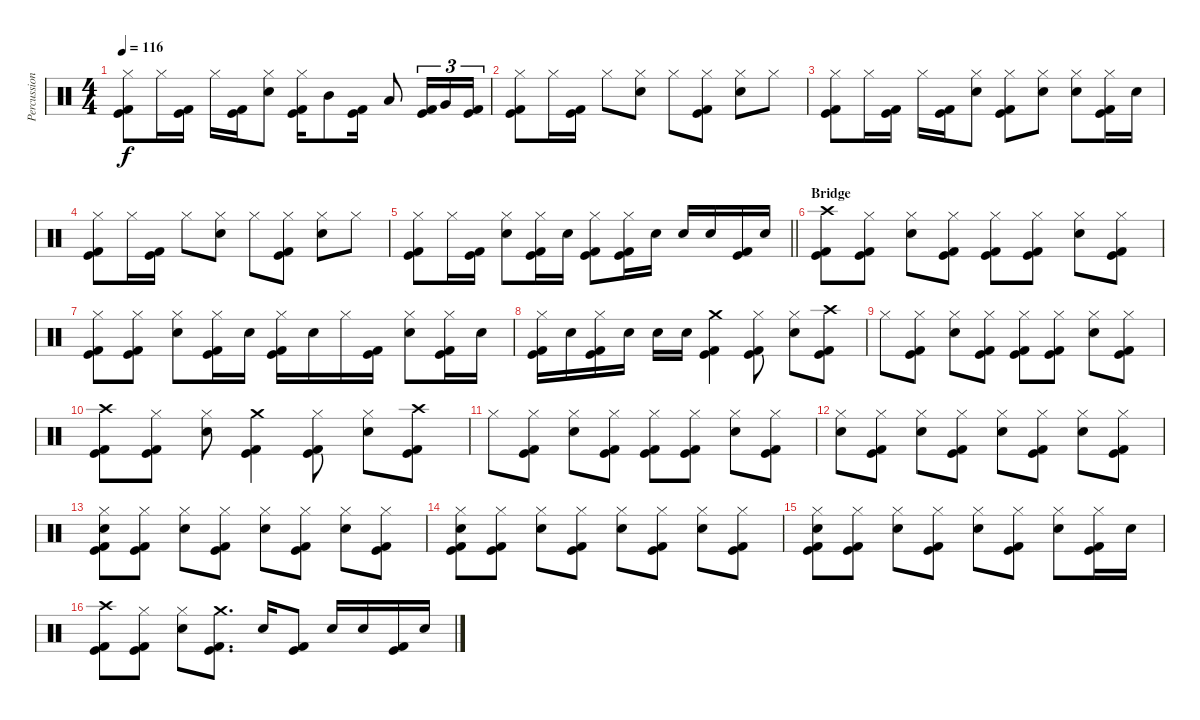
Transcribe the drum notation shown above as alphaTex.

\track ("Percussion" "Percussion") {instrument percussion}
\staff {score}
\articulation defaults
\ts (4 4)
\tempo 116
\clef neutral
\ks c
("Hi-Hat (closed)" "Kick (hit)" "Kick (hit) 2").8{dy f} "Hi-Hat (closed)".16 ("Kick (hit)" "Kick (hit) 2").16 "Hi-Hat (closed)".16 ("Kick (hit)" "Kick (hit) 2").16 ("Hi-Hat (closed)" "Electric Snare (hit)").8 ("Hi-Hat (closed)" "Kick (hit)" "Kick (hit) 2").16 "Mid Tom (hit)".8 ("Kick (hit)" "Kick (hit) 2").16 "Low Tom (hit)".8 ("Kick (hit)" "Kick (hit) 2").16{tu (3 2)} "Very Low Tom (hit)".16{tu (3 2)} ("Kick (hit)" "Kick (hit) 2").16{tu (3 2)} |
("Hi-Hat (closed)" "Kick (hit)" "Kick (hit) 2").8 "Hi-Hat (closed)".16 ("Kick (hit)" "Kick (hit) 2").16 "Hi-Hat (closed)".8 ("Hi-Hat (closed)" "Electric Snare (hit)").8 "Hi-Hat (closed)".8 ("Hi-Hat (closed)" "Kick (hit)" "Kick (hit) 2").8 ("Hi-Hat (closed)" "Electric Snare (hit)").8 "Hi-Hat (closed)".8 |
("Hi-Hat (closed)" "Kick (hit)" "Kick (hit) 2").8 "Hi-Hat (closed)".16 ("Kick (hit)" "Kick (hit) 2").16 "Hi-Hat (closed)".16 ("Kick (hit)" "Kick (hit) 2").16 ("Hi-Hat (closed)" "Electric Snare (hit)").8 ("Hi-Hat (closed)" "Kick (hit)" "Kick (hit) 2").8 ("Hi-Hat (closed)" "Electric Snare (hit)").8 ("Hi-Hat (closed)" "Electric Snare (hit)").8 ("Hi-Hat (closed)" "Kick (hit)" "Kick (hit) 2").16 "Electric Snare (hit)".16 |
("Hi-Hat (closed)" "Kick (hit)" "Kick (hit) 2").8 "Hi-Hat (closed)".16 ("Kick (hit)" "Kick (hit) 2").16 "Hi-Hat (closed)".8 ("Hi-Hat (closed)" "Electric Snare (hit)").8 "Hi-Hat (closed)".8 ("Hi-Hat (closed)" "Kick (hit)" "Kick (hit) 2").8 ("Hi-Hat (closed)" "Electric Snare (hit)").8 "Hi-Hat (closed)".8 |
\barLineRight lightlight
("Hi-Hat (closed)" "Kick (hit)" "Kick (hit) 2").8 "Hi-Hat (closed)".16 ("Kick (hit)" "Kick (hit) 2").16 ("Hi-Hat (closed)" "Electric Snare (hit)").8 ("Hi-Hat (closed)" "Kick (hit)" "Kick (hit) 2").16 "Electric Snare (hit)".16 ("Hi-Hat (closed)" "Kick (hit)" "Kick (hit) 2").8 ("Hi-Hat (closed)" "Kick (hit)" "Kick (hit) 2").16 "Electric Snare (hit)".16 "Electric Snare (hit)".16 "Electric Snare (hit)".16 ("Kick (hit)" "Kick (hit) 2").16 "Electric Snare (hit)".16 |
\section ("" "Bridge")
("Crash high (hit)" "Kick (hit)" "Kick (hit) 2").8 ("Hi-Hat (closed)" "Kick (hit)" "Kick (hit) 2").8 ("Hi-Hat (closed)" "Electric Snare (hit)").8 ("Hi-Hat (closed)" "Kick (hit)" "Kick (hit) 2").8 ("Hi-Hat (closed)" "Kick (hit)" "Kick (hit) 2").8 ("Hi-Hat (closed)" "Kick (hit)" "Kick (hit) 2").8 ("Hi-Hat (closed)" "Electric Snare (hit)").8 ("Hi-Hat (closed)" "Kick (hit)" "Kick (hit) 2").8 |
("Hi-Hat (closed)" "Kick (hit)" "Kick (hit) 2").8 ("Hi-Hat (closed)" "Kick (hit)" "Kick (hit) 2").8 ("Hi-Hat (closed)" "Electric Snare (hit)").8 ("Hi-Hat (closed)" "Kick (hit)" "Kick (hit) 2").16 "Electric Snare (hit)".16 ("Hi-Hat (closed)" "Kick (hit)" "Kick (hit) 2").16 "Electric Snare (hit)".16 "Hi-Hat (closed)".16 ("Kick (hit)" "Kick (hit) 2").16 ("Hi-Hat (closed)" "Electric Snare (hit)").8 ("Hi-Hat (closed)" "Kick (hit)" "Kick (hit) 2").16 "Electric Snare (hit)".16 |
("Hi-Hat (closed)" "Kick (hit)" "Kick (hit) 2").16 "Electric Snare (hit)".16 ("Hi-Hat (closed)" "Kick (hit)" "Kick (hit) 2").16 "Electric Snare (hit)".16 "Electric Snare (hit)".16 "Electric Snare (hit)".16 ("Crash medium (hit)" "Kick (hit)" "Kick (hit) 2").4 ("Hi-Hat (closed)" "Kick (hit)" "Kick (hit) 2").8 ("Hi-Hat (closed)" "Electric Snare (hit)").8 ("Crash high (hit)" "Kick (hit)" "Kick (hit) 2").8 |
"Hi-Hat (closed)".8 ("Hi-Hat (closed)" "Kick (hit)" "Kick (hit) 2").8 ("Hi-Hat (closed)" "Electric Snare (hit)").8 ("Hi-Hat (closed)" "Kick (hit)" "Kick (hit) 2").8 ("Hi-Hat (closed)" "Kick (hit)" "Kick (hit) 2").8 ("Hi-Hat (closed)" "Kick (hit)" "Kick (hit) 2").8 ("Hi-Hat (closed)" "Electric Snare (hit)").8 ("Hi-Hat (closed)" "Kick (hit)" "Kick (hit) 2").8 |
("Crash high (hit)" "Kick (hit)" "Kick (hit) 2").8 ("Hi-Hat (closed)" "Kick (hit)" "Kick (hit) 2").8 ("Hi-Hat (closed)" "Electric Snare (hit)").8 ("Crash medium (hit)" "Kick (hit)" "Kick (hit) 2").4 ("Hi-Hat (closed)" "Kick (hit)" "Kick (hit) 2").8 ("Hi-Hat (closed)" "Electric Snare (hit)").8 ("Crash high (hit)" "Kick (hit)" "Kick (hit) 2").8 |
"Hi-Hat (closed)".8 ("Hi-Hat (closed)" "Kick (hit)" "Kick (hit) 2").8 ("Hi-Hat (closed)" "Electric Snare (hit)").8 ("Hi-Hat (closed)" "Kick (hit)" "Kick (hit) 2").8 ("Hi-Hat (closed)" "Kick (hit)" "Kick (hit) 2").8 ("Hi-Hat (closed)" "Kick (hit)" "Kick (hit) 2").8 ("Hi-Hat (closed)" "Electric Snare (hit)").8 ("Hi-Hat (closed)" "Kick (hit)" "Kick (hit) 2").8 |
("Hi-Hat (closed)" "Electric Snare (hit)").8 ("Hi-Hat (closed)" "Kick (hit)" "Kick (hit) 2").8 ("Hi-Hat (closed)" "Electric Snare (hit)").8 ("Hi-Hat (closed)" "Kick (hit)" "Kick (hit) 2").8 ("Hi-Hat (closed)" "Electric Snare (hit)").8 ("Hi-Hat (closed)" "Kick (hit)" "Kick (hit) 2").8 ("Hi-Hat (closed)" "Electric Snare (hit)").8 ("Hi-Hat (closed)" "Kick (hit)" "Kick (hit) 2").8 |
("Hi-Hat (closed)" "Electric Snare (hit)" "Kick (hit)" "Kick (hit) 2").8 ("Hi-Hat (closed)" "Kick (hit)" "Kick (hit) 2").8 ("Hi-Hat (closed)" "Electric Snare (hit)").8 ("Hi-Hat (closed)" "Kick (hit)" "Kick (hit) 2").8 ("Hi-Hat (closed)" "Electric Snare (hit)").8 ("Hi-Hat (closed)" "Kick (hit)" "Kick (hit) 2").8 ("Hi-Hat (closed)" "Electric Snare (hit)").8 ("Hi-Hat (closed)" "Kick (hit)" "Kick (hit) 2").8 |
("Hi-Hat (closed)" "Electric Snare (hit)" "Kick (hit)" "Kick (hit) 2").8 ("Hi-Hat (closed)" "Kick (hit)" "Kick (hit) 2").8 ("Hi-Hat (closed)" "Electric Snare (hit)").8 ("Hi-Hat (closed)" "Kick (hit)" "Kick (hit) 2").8 ("Hi-Hat (closed)" "Electric Snare (hit)").8 ("Hi-Hat (closed)" "Kick (hit)" "Kick (hit) 2").8 ("Hi-Hat (closed)" "Electric Snare (hit)").8 ("Hi-Hat (closed)" "Kick (hit)" "Kick (hit) 2").8 |
("Hi-Hat (closed)" "Electric Snare (hit)" "Kick (hit)" "Kick (hit) 2").8 ("Hi-Hat (closed)" "Kick (hit)" "Kick (hit) 2").8 ("Hi-Hat (closed)" "Electric Snare (hit)").8 ("Hi-Hat (closed)" "Kick (hit)" "Kick (hit) 2").8 ("Hi-Hat (closed)" "Electric Snare (hit)").8 ("Hi-Hat (closed)" "Kick (hit)" "Kick (hit) 2").8 ("Hi-Hat (closed)" "Electric Snare (hit)").8 ("Hi-Hat (closed)" "Kick (hit)" "Kick (hit) 2").16 "Electric Snare (hit)".16 |
("Crash high (hit)" "Kick (hit)" "Kick (hit) 2").8 ("Hi-Hat (closed)" "Kick (hit)" "Kick (hit) 2").8 ("Hi-Hat (closed)" "Electric Snare (hit)").8 ("Crash medium (hit)" "Kick (hit)" "Kick (hit) 2").8{d} "Electric Snare (hit)".16 ("Kick (hit)" "Kick (hit) 2").8 "Electric Snare (hit)".16 "Electric Snare (hit)".16 ("Kick (hit)" "Kick (hit) 2").16 "Electric Snare (hit)".16
